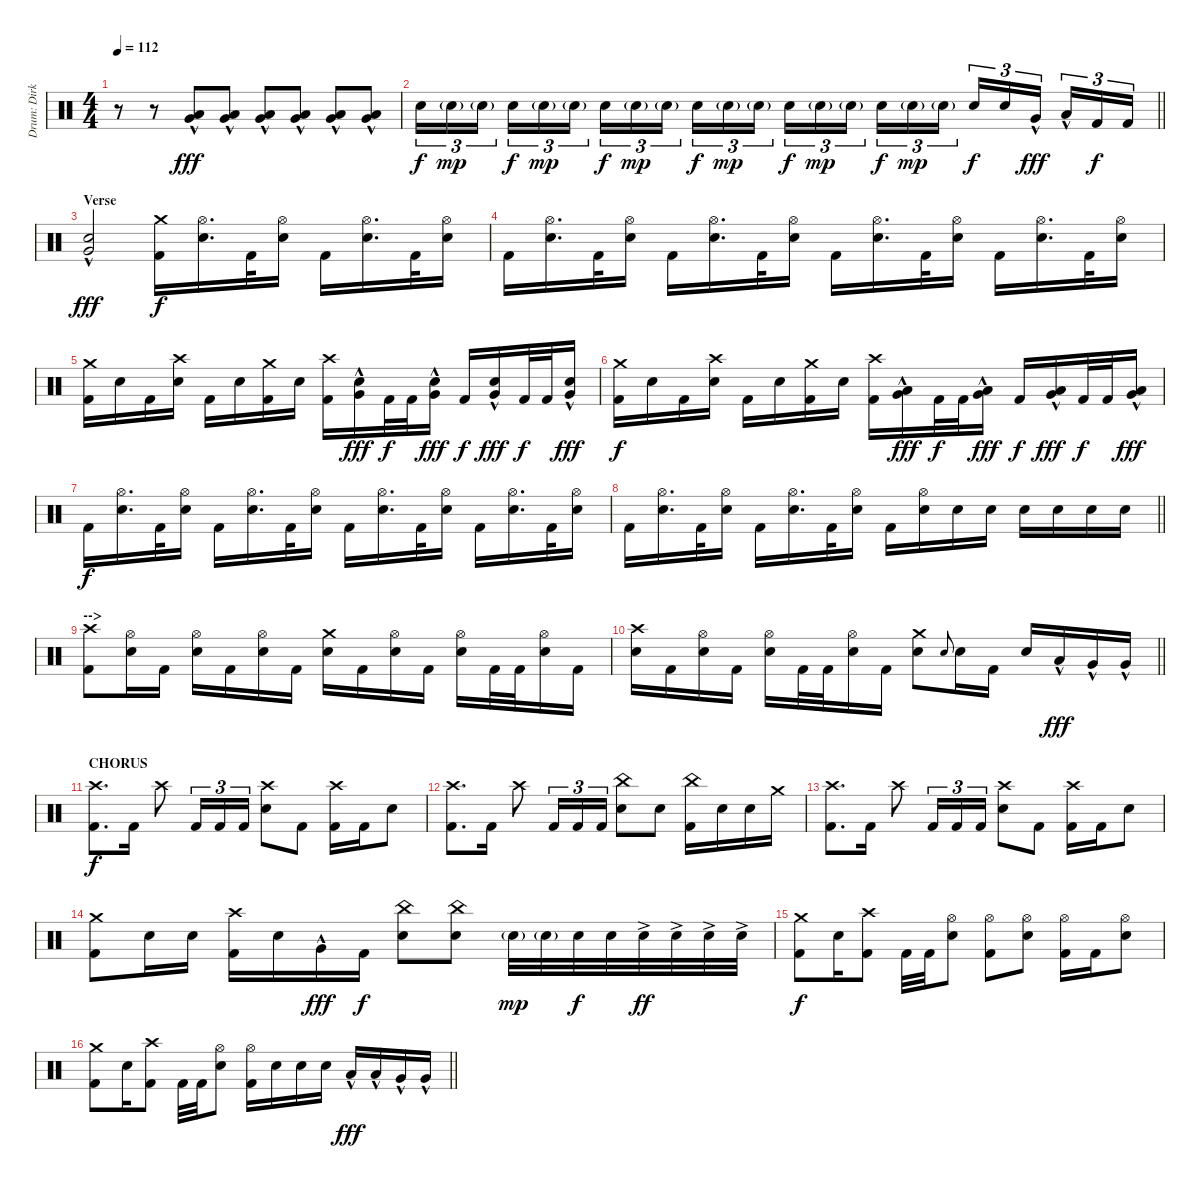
\track ("Drum: Dirk" "Drum: Dirk") {instrument percussion}
\staff {score}
\articulation defaults
\ts (4 4)
\tempo 112
\clef neutral
\ks c
r.8{dy f} r.8{volume 0} ("Low Tom (hit)"{hac} "Very Low Tom (hit)"{hac}).8{dy fff volume 14} ("Low Tom (hit)"{hac} "Very Low Tom (hit)"{hac}).8 ("Low Tom (hit)"{hac} "Very Low Tom (hit)"{hac}).8 ("Low Tom (hit)"{hac} "Very Low Tom (hit)"{hac}).8 ("Low Tom (hit)"{hac} "Very Low Tom (hit)"{hac}).8 ("Low Tom (hit)"{hac} "Very Low Tom (hit)"{hac}).8 |
\barLineRight lightlight "Electric Snare (hit)".16{tu (3 2) dy f} "Electric Snare (hit)"{g}.16{tu (3 2) dy mp} "Electric Snare (hit)"{g}.16{tu (3 2) beam splitsecondary} "Electric Snare (hit)".16{tu (3 2) dy f} "Electric Snare (hit)"{g}.16{tu (3 2) dy mp} "Electric Snare (hit)"{g}.16{tu (3 2)} "Electric Snare (hit)".16{tu (3 2) dy f} "Electric Snare (hit)"{g}.16{tu (3 2) dy mp} "Electric Snare (hit)"{g}.16{tu (3 2) beam splitsecondary} "Electric Snare (hit)".16{tu (3 2) dy f} "Electric Snare (hit)"{g}.16{tu (3 2) dy mp} "Electric Snare (hit)"{g}.16{tu (3 2)} "Electric Snare (hit)".16{tu (3 2) dy f} "Electric Snare (hit)"{g}.16{tu (3 2) dy mp} "Electric Snare (hit)"{g}.16{tu (3 2) beam splitsecondary} "Electric Snare (hit)".16{tu (3 2) dy f} "Electric Snare (hit)"{g}.16{tu (3 2) dy mp} "Electric Snare (hit)"{g}.16{tu (3 2)} "Electric Snare (hit)".16{tu (3 2) dy f} "Electric Snare (hit)".16{tu (3 2)} "Very Low Tom (hit)"{hac}.16{tu (3 2) dy fff beam splitsecondary} "Low Tom (hit)"{hac}.16{tu (3 2)} "Kick (hit) 2".16{tu (3 2) dy f} "Kick (hit) 2".16{tu (3 2)}
|
\section ("" "Verse")
("Electric Snare (hit)" "Very Low Tom (hit)"{hac}).2{dy fff} ("Crash medium (hit)" "Kick (hit) 2").16{dy f} ("Hi-Hat (open)" "Electric Snare (hit)").16{d} "Kick (hit) 2".32 ("Hi-Hat (open)" "Electric Snare (hit)").16 "Kick (hit) 2".16 ("Hi-Hat (open)" "Electric Snare (hit)").16{d} "Kick (hit) 2".32 ("Hi-Hat (open)" "Electric Snare (hit)").16 |
"Kick (hit) 2".16 ("Hi-Hat (open)" "Electric Snare (hit)").16{d} "Kick (hit) 2".32 ("Hi-Hat (open)" "Electric Snare (hit)").16 "Kick (hit) 2".16 ("Hi-Hat (open)" "Electric Snare (hit)").16{d} "Kick (hit) 2".32 ("Hi-Hat (open)" "Electric Snare (hit)").16 "Kick (hit) 2".16 ("Hi-Hat (open)" "Electric Snare (hit)").16{d} "Kick (hit) 2".32 ("Hi-Hat (open)" "Electric Snare (hit)").16 "Kick (hit) 2".16 ("Hi-Hat (open)" "Electric Snare (hit)").16{d} "Kick (hit) 2".32 ("Hi-Hat (open)" "Electric Snare (hit)").16 |
("Crash medium (hit)" "Kick (hit) 2").16 "Electric Snare (hit)".16 "Kick (hit) 2".16 ("Crash high (hit)" "Electric Snare (hit)").16 "Kick (hit) 2".16 "Electric Snare (hit)".16 ("Crash medium (hit)" "Kick (hit) 2").16 "Electric Snare (hit)".16 ("Crash high (hit)" "Kick (hit) 2").16 ("Electric Snare (hit)" "Very Low Tom (hit)"{hac}).16{dy fff} "Kick (hit) 2".32{dy f} "Kick (hit) 2".32 ("Electric Snare (hit)" "Very Low Tom (hit)"{hac}).16{dy fff} "Kick (hit) 2".16{dy f} ("Electric Snare (hit)" "Very Low Tom (hit)"{hac}).16{dy fff} "Kick (hit) 2".32{dy f} "Kick (hit) 2".32 ("Electric Snare (hit)" "Very Low Tom (hit)"{hac}).16{dy fff} |
("Crash medium (hit)" "Kick (hit) 2").16{dy f} "Electric Snare (hit)".16 "Kick (hit) 2".16 ("Crash high (hit)" "Electric Snare (hit)").16 "Kick (hit) 2".16 "Electric Snare (hit)".16 ("Crash medium (hit)" "Kick (hit) 2").16 "Electric Snare (hit)".16 ("Crash high (hit)" "Kick (hit) 2").16 ("Low Tom (hit)"{hac} "Very Low Tom (hit)"{hac}).16{dy fff} "Kick (hit) 2".32{dy f} "Kick (hit) 2".32 ("Low Tom (hit)"{hac} "Very Low Tom (hit)"{hac}).16{dy fff} "Kick (hit) 2".16{dy f} ("Low Tom (hit)"{hac} "Very Low Tom (hit)"{hac}).16{dy fff} "Kick (hit) 2".32{dy f} "Kick (hit) 2".32 ("Low Tom (hit)"{hac} "Very Low Tom (hit)"{hac}).16{dy fff} |
"Kick (hit) 2".16{dy f} ("Hi-Hat (open)" "Electric Snare (hit)").16{d} "Kick (hit) 2".32 ("Hi-Hat (open)" "Electric Snare (hit)").16 "Kick (hit) 2".16 ("Hi-Hat (open)" "Electric Snare (hit)").16{d} "Kick (hit) 2".32 ("Hi-Hat (open)" "Electric Snare (hit)").16 "Kick (hit) 2".16 ("Hi-Hat (open)" "Electric Snare (hit)").16{d} "Kick (hit) 2".32 ("Hi-Hat (open)" "Electric Snare (hit)").16 "Kick (hit) 2".16 ("Hi-Hat (open)" "Electric Snare (hit)").16{d} "Kick (hit) 2".32 ("Hi-Hat (open)" "Electric Snare (hit)").16 |
\barLineRight lightlight "Kick (hit) 2".16
("Hi-Hat (open)" "Electric Snare (hit)").16{d} "Kick (hit) 2".32 ("Hi-Hat (open)" "Electric Snare (hit)").16 "Kick (hit) 2".16 ("Hi-Hat (open)" "Electric Snare (hit)").16{d} "Kick (hit) 2".32 ("Hi-Hat (open)" "Electric Snare (hit)").16 "Kick (hit) 2".16 ("Hi-Hat (open)" "Electric Snare (hit)").16 "Electric Snare (hit)".16 "Electric Snare (hit)".16 "Electric Snare (hit)".16 "Electric Snare (hit)".16 "Electric Snare (hit)".16 "Electric Snare (hit)".16 |
\section ("" "-->")
("Crash high (hit)" "Kick (hit) 2").8 ("Hi-Hat (open)" "Electric Snare (hit)").16 "Kick (hit) 2".16 ("Hi-Hat (open)" "Electric Snare (hit)").16 "Kick (hit) 2".16 ("Hi-Hat (open)" "Electric Snare (hit)").16 "Kick (hit) 2".16 ("Crash medium (hit)" "Electric Snare (hit)").16 "Kick (hit) 2".16 ("Hi-Hat (open)" "Electric Snare (hit)").16 "Kick (hit) 2".16 ("Hi-Hat (open)" "Electric Snare (hit)").16 "Kick (hit) 2".32 "Kick (hit) 2".32 ("Hi-Hat (open)" "Electric Snare (hit)").16 "Kick (hit) 2".16 |
\barLineRight lightlight
("Crash high (hit)" "Electric Snare (hit)").16 "Kick (hit) 2".16 ("Hi-Hat (open)" "Electric Snare (hit)").16 "Kick (hit) 2".16 ("Hi-Hat (open)" "Electric Snare (hit)").16 "Kick (hit) 2".32 "Kick (hit) 2".32 ("Hi-Hat (open)" "Electric Snare (hit)").16 "Kick (hit) 2".16 ("Crash medium (hit)" "Electric Snare (hit)").8 "Electric Snare (hit)".8{gr onbeat} "Electric Snare (hit)".16 "Kick (hit) 2".16 "Electric Snare (hit)".16 "Low Tom (hit)"{hac}.16{dy fff} "Very Low Tom (hit)"{hac}.16 "Very Low Tom (hit)"{hac}.16 |
\section ("" "CHORUS")
("Crash high (hit)" "Kick (hit) 2").8{d dy f} "Kick (hit) 2".16 "Crash high (hit)".8 "Kick (hit) 2".16{tu (3 2)} "Kick (hit) 2".16{tu (3 2)} "Kick (hit) 2".16{tu (3 2)} ("Crash high (hit)" "Electric Snare (hit)").8 "Kick (hit) 2".8 ("Crash high (hit)" "Kick (hit) 2").16 "Kick (hit) 2".16 "Electric Snare (hit)".8 |
("Crash high (hit)" "Kick (hit) 2").8{d} "Kick (hit) 2".16 "Crash high (hit)".8 "Kick (hit) 2".16{tu (3 2)} "Kick (hit) 2".16{tu (3 2)} "Kick (hit) 2".16{tu (3 2)} ("China (hit)" "Electric Snare (hit)").8 "Electric Snare (hit)".8 ("China (hit)" "Kick (hit) 2").16 "Electric Snare (hit)".16 "Electric Snare (hit)".16 "Crash medium (hit)".16 |
("Crash high (hit)" "Kick (hit) 2").8{d} "Kick (hit) 2".16 "Crash high (hit)".8 "Kick (hit) 2".16{tu (3 2)} "Kick (hit) 2".16{tu (3 2)} "Kick (hit) 2".16{tu (3 2)} ("Crash high (hit)" "Electric Snare (hit)").8 "Kick (hit) 2".8 ("Crash high (hit)" "Kick (hit) 2").16 "Kick (hit) 2".16 "Electric Snare (hit)".8 |
("Crash medium (hit)" "Kick (hit) 2").8 "Electric Snare (hit)".16 "Electric Snare (hit)".16 ("Crash high (hit)" "Kick (hit) 2").16 "Electric Snare (hit)".16 "Very Low Tom (hit)"{hac}.16{dy fff} "Kick (hit) 2".16{dy f} ("China (hit)" "Electric Snare (hit)").8 ("China (hit)" "Electric Snare (hit)").8 "Electric Snare (hit)"{g}.32{dy mp} "Electric Snare (hit)"{g}.32 "Electric Snare (hit)".32{dy f} "Electric Snare (hit)".32 "Electric Snare (hit)"{ac}.32{dy ff} "Electric Snare (hit)"{ac}.32 "Electric Snare (hit)"{ac}.32 "Electric Snare (hit)"{ac}.32 |
("Crash medium (hit)" "Kick (hit) 2").8{dy f} "Electric Snare (hit)".16 ("Crash high (hit)" "Kick (hit) 2").8 "Kick (hit) 2".32 "Kick (hit) 2".32 ("Hi-Hat (open)" "Electric Snare (hit)").8 ("Hi-Hat (open)" "Kick (hit) 2").8 ("Hi-Hat (open)" "Electric Snare (hit)").8 ("Hi-Hat (open)" "Kick (hit) 2").16 "Kick (hit) 2".16 ("Hi-Hat (open)" "Electric Snare (hit)").8 |
\barLineRight lightlight
("Crash medium (hit)" "Kick (hit) 2").8 "Electric Snare (hit)".16 ("Crash high (hit)" "Kick (hit) 2").8 "Kick (hit) 2".32 "Kick (hit) 2".32 ("Hi-Hat (open)" "Electric Snare (hit)").8 ("Hi-Hat (open)" "Kick (hit) 2").16 "Electric Snare (hit)".16 "Electric Snare (hit)".16 "Electric Snare (hit)".16 "Low Tom (hit)"{hac}.16{dy fff} "Low Tom (hit)"{hac}.16 "Very Low Tom (hit)"{hac}.16 "Very Low Tom (hit)"{hac}.16
